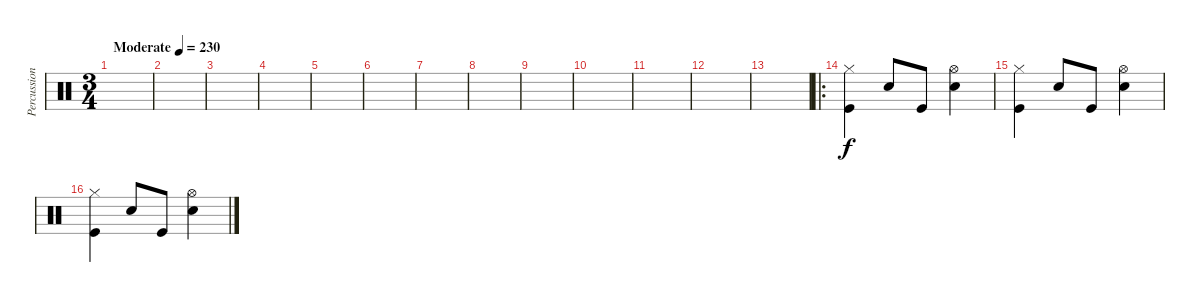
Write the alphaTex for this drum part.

\track ("Percussion" "Percussion") {instrument percussion}
\staff {score}
\articulation defaults
\ts (3 4)
\tempo (230 "Moderate")
\clef neutral
\ks c
|
|
|
|
|
|
|
|
|
|
|
|
|
\ro
("Hi-Hat (closed)" "Kick (hit)").4 "Snare (hit) 2".8 "Kick (hit)".8 ("Hi-Hat (open)" "Snare (hit) 2").4 |
("Hi-Hat (closed)" "Kick (hit)").4 "Snare (hit) 2".8 "Kick (hit)".8 ("Hi-Hat (open)" "Snare (hit) 2").4 |
("Hi-Hat (closed)" "Kick (hit)").4 "Snare (hit) 2".8 "Kick (hit)".8 ("Hi-Hat (open)" "Snare (hit) 2").4
